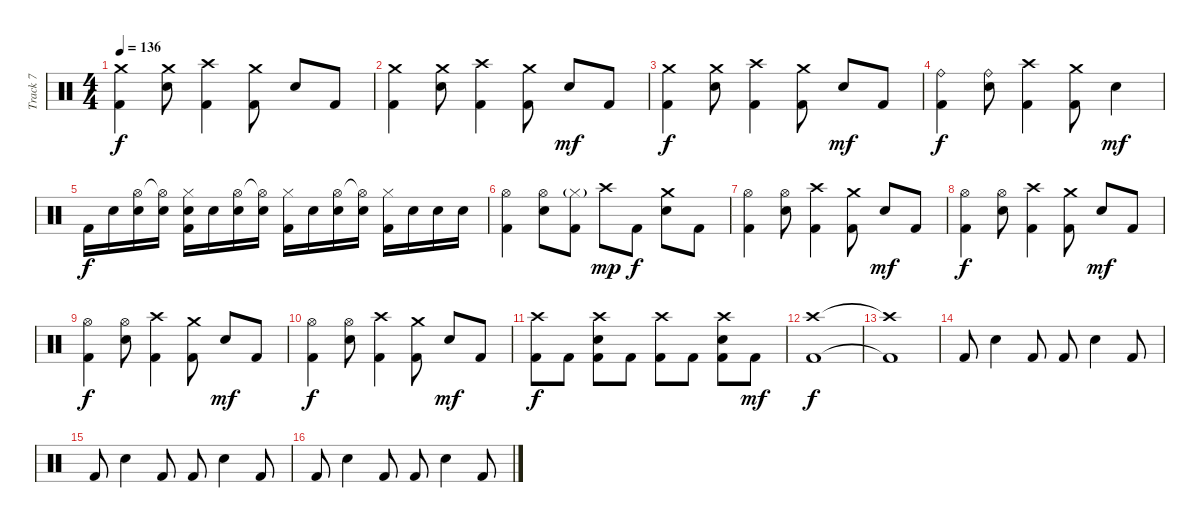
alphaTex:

\track ("Track 7" "Track 7") {instrument percussion}
\staff {score}
\articulation defaults
\ts (4 4)
\tempo 136
\clef neutral
\ks c
("Crash medium (hit)" "Kick (hit) 2").4{dy f} ("Crash medium (hit)" "Electric Snare (hit)").8 ("Crash high (hit)" "Kick (hit) 2").4 ("Crash medium (hit)" "Kick (hit) 2").8 "Electric Snare (hit)".8 "Kick (hit) 2".8 |
("Crash medium (hit)" "Kick (hit) 2").4 ("Crash medium (hit)" "Electric Snare (hit)").8 ("Crash high (hit)" "Kick (hit) 2").4 ("Crash medium (hit)" "Kick (hit) 2").8 "Electric Snare (hit)".8{dy mf} "Kick (hit) 2".8 |
("Crash medium (hit)" "Kick (hit) 2").4{dy f} ("Crash medium (hit)" "Electric Snare (hit)").8 ("Crash high (hit)" "Kick (hit) 2").4 ("Crash medium (hit)" "Kick (hit) 2").8 "Electric Snare (hit)".8{dy mf} "Kick (hit) 2".8 |
("Ride (bell)" "Kick (hit) 2").4{dy f} ("Ride (bell)" "Electric Snare (hit)").8 ("Crash high (hit)" "Kick (hit) 2").4 ("Crash medium (hit)" "Kick (hit) 2").8 "Electric Snare (hit)".4{dy mf} |
"Kick (hit) 2".16{dy f} "Electric Snare (hit)".16 ("Hi-Hat (open)" "Electric Snare (hit)").16 ("Hi-Hat (open)"{t} "Electric Snare (hit)").16 ("Hi-Hat (closed)" "Electric Snare (hit)" "Kick (hit) 2").16 "Electric Snare (hit)".16 ("Hi-Hat (open)" "Electric Snare (hit)").16 ("Hi-Hat (open)"{t} "Electric Snare (hit)").16 ("Hi-Hat (closed)" "Kick (hit) 2").16 "Electric Snare (hit)".16 ("Hi-Hat (open)" "Electric Snare (hit)").16 ("Hi-Hat (open)"{t} "Electric Snare (hit)").16 ("Hi-Hat (closed)" "Kick (hit) 2").16 "Electric Snare (hit)".16 "Electric Snare (hit)".16 "Electric Snare (hit)".16 |
("Hi-Hat (open)" "Kick (hit) 2").4 ("Hi-Hat (open)" "Electric Snare (hit)").8 ("Hi-Hat (closed)"{g} "Kick (hit) 2").8 "Crash high (hit)".8{dy mp} "Kick (hit) 2".8{dy f} ("Crash medium (hit)" "Electric Snare (hit)").8 "Kick (hit) 2".8 |
("Hi-Hat (open)" "Kick (hit) 2").4 ("Hi-Hat (open)" "Electric Snare (hit)").8 ("Crash high (hit)" "Kick (hit) 2").4 ("Crash medium (hit)" "Kick (hit) 2").8 "Electric Snare (hit)".8{dy mf} "Kick (hit) 2".8 |
("Hi-Hat (open)" "Kick (hit) 2").4{dy f} ("Hi-Hat (open)" "Electric Snare (hit)").8 ("Crash high (hit)" "Kick (hit) 2").4 ("Crash medium (hit)" "Kick (hit) 2").8 "Electric Snare (hit)".8{dy mf} "Kick (hit) 2".8 |
("Hi-Hat (open)" "Kick (hit) 2").4{dy f} ("Hi-Hat (open)" "Electric Snare (hit)").8 ("Crash high (hit)" "Kick (hit) 2").4 ("Crash medium (hit)" "Kick (hit) 2").8 "Electric Snare (hit)".8{dy mf} "Kick (hit) 2".8 |
("Hi-Hat (open)" "Kick (hit) 2").4{dy f} ("Hi-Hat (open)" "Electric Snare (hit)").8 ("Crash high (hit)" "Kick (hit) 2").4 ("Crash medium (hit)" "Kick (hit) 2").8 "Electric Snare (hit)".8{dy mf} "Kick (hit) 2".8 |
("Crash high (hit)" "Kick (hit) 2").8{dy f} "Kick (hit) 2".8 ("Crash high (hit)" "Electric Snare (hit)" "Kick (hit) 2").8 "Kick (hit) 2".8 ("Crash high (hit)" "Kick (hit) 2").8 "Kick (hit) 2".8 ("Crash high (hit)" "Electric Snare (hit)" "Kick (hit) 2").8 "Kick (hit) 2".8{dy mf} |
("Crash high (hit)" "Kick (hit) 2").1{dy f} |
("Crash high (hit)"{t} "Kick (hit) 2"{t}).1 |
"Kick (hit) 2".8 "Electric Snare (hit)".4 "Kick (hit) 2".8 "Kick (hit) 2".8 "Electric Snare (hit)".4 "Kick (hit) 2".8 |
"Kick (hit) 2".8 "Electric Snare (hit)".4 "Kick (hit) 2".8 "Kick (hit) 2".8 "Electric Snare (hit)".4 "Kick (hit) 2".8 |
"Kick (hit) 2".8 "Electric Snare (hit)".4 "Kick (hit) 2".8 "Kick (hit) 2".8 "Electric Snare (hit)".4 "Kick (hit) 2".8
